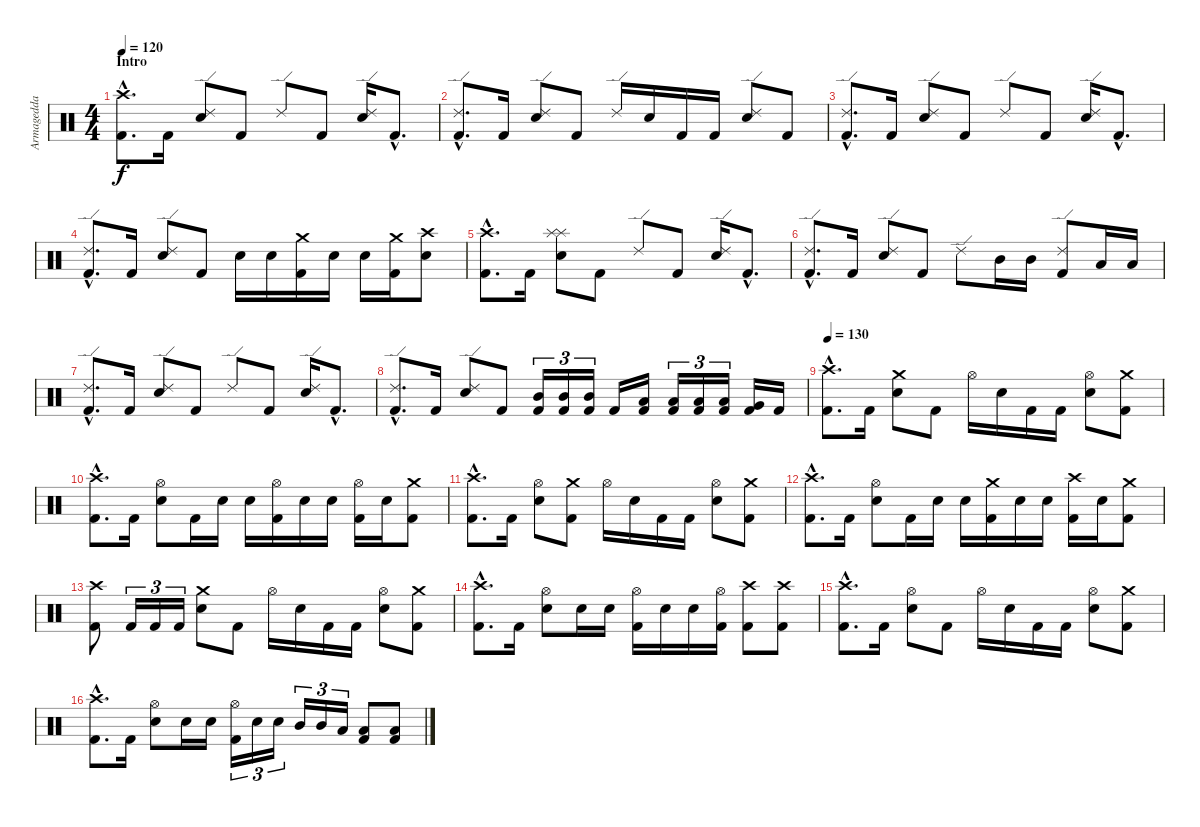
\track ("Armagedda" "Armagedda") {instrument percussion}
\staff {score}
\articulation defaults
\ts (4 4)
\section ("" "Intro")
\tempo 120
\tempo 124
\tempo 120
\clef neutral
\ks c
("Crash high (hit)"{hac} "Kick (hit) 2"{hac}).8{d dy f} "Kick (hit) 2".16 ("Ride (edge) 2" "Electric Snare (hit)").8 "Kick (hit) 2".8 "Ride (edge) 2".8 "Kick (hit) 2".8 ("Ride (edge) 2" "Electric Snare (hit)").16 "Kick (hit) 2"{hac}.8{d} |
("Ride (edge) 2"{hac} "Kick (hit) 2"{hac}).8{d} "Kick (hit) 2".16 ("Ride (edge) 2" "Electric Snare (hit)").8 "Kick (hit) 2".8 "Ride (edge) 2".16 "Electric Snare (hit)".16 "Kick (hit) 2".16 "Kick (hit) 2".16 ("Ride (edge) 2" "Electric Snare (hit)").8 "Kick (hit) 2".8 |
("Ride (edge) 2"{hac} "Kick (hit) 2"{hac}).8{d} "Kick (hit) 2".16 ("Ride (edge) 2" "Electric Snare (hit)").8 "Kick (hit) 2".8 "Ride (edge) 2".8 "Kick (hit) 2".8 ("Ride (edge) 2" "Electric Snare (hit)").16 "Kick (hit) 2"{hac}.8{d} |
("Ride (edge) 2"{hac} "Kick (hit) 2"{hac}).8{d} "Kick (hit) 2".16 ("Ride (edge) 2" "Electric Snare (hit)").8 "Kick (hit) 2".8 "Electric Snare (hit)".16 "Electric Snare (hit)".16 ("Crash medium (hit)" "Kick (hit) 2").16 "Electric Snare (hit)".16 "Electric Snare (hit)".16 ("Crash medium (hit)" "Kick (hit) 2").16 ("Crash high (hit)" "Electric Snare (hit)").8 |
("Crash high (hit)"{hac} "Kick (hit) 2"{hac}).8{d} "Kick (hit) 2".16 ("Splash (hit)" "Splash (hit)" "Electric Snare (hit)").8 "Kick (hit) 2".8 "Ride (edge) 2".8 "Kick (hit) 2".8 ("Ride (edge) 2" "Electric Snare (hit)").16 "Kick (hit) 2"{hac}.8{d} |
("Ride (edge) 2"{hac} "Kick (hit) 2"{hac}).8{d} "Kick (hit) 2".16 ("Ride (edge) 2" "Electric Snare (hit)").8 "Kick (hit) 2".8 "Ride (edge) 2".8 "Mid Tom (hit)".16 "Mid Tom (hit)".16 ("Ride (edge) 2" "Kick (hit) 2").8 "Low Tom (hit)".16 "Low Tom (hit)".16 |
("Ride (edge) 2"{hac} "Kick (hit) 2"{hac}).8{d} "Kick (hit) 2".16 ("Ride (edge) 2" "Electric Snare (hit)").8 "Kick (hit) 2".8 "Ride (edge) 2".8 "Kick (hit) 2".8 ("Ride (edge) 2" "Electric Snare (hit)").16 "Kick (hit) 2"{hac}.8{d} |
("Ride (edge) 2"{hac} "Kick (hit) 2"{hac}).8{d} "Kick (hit) 2".16 ("Ride (edge) 2" "Electric Snare (hit)").8 "Kick (hit) 2".8 ("Mid Tom (hit)" "Kick (hit) 2").16{tu (3 2)} ("Mid Tom (hit)" "Kick (hit) 2").16{tu (3 2)} ("Mid Tom (hit)" "Kick (hit) 2").16{tu (3 2)} "Kick (hit) 2".16 ("Low Tom (hit)" "Kick (hit) 2").16 ("Low Tom (hit)" "Kick (hit) 2").16{tu (3 2)} ("Low Tom (hit)" "Kick (hit) 2").16{tu (3 2)} ("Low Tom (hit)" "Kick (hit) 2").16{tu (3 2)} ("Very Low Tom (hit)" "Kick (hit) 2").16 "Kick (hit) 2".16 |
\tempo 130
("Crash high (hit)"{hac} "Kick (hit) 2"{hac}).8{d} "Kick (hit) 2".16 ("Crash medium (hit)" "Electric Snare (hit)").8 "Kick (hit) 2".8 "Hi-Hat (open)".16 "Electric Snare (hit)".16 "Kick (hit) 2".16 "Kick (hit) 2".16 ("Hi-Hat (open)" "Electric Snare (hit)").8 ("Crash medium (hit)" "Kick (hit) 2").8 |
("Crash high (hit)"{hac} "Kick (hit) 2"{hac}).8{d} "Kick (hit) 2".16 ("Hi-Hat (open)" "Electric Snare (hit)").8 "Kick (hit) 2".16 "Electric Snare (hit)".16 "Electric Snare (hit)".16 ("Hi-Hat (open)" "Kick (hit) 2").16 "Electric Snare (hit)".16 "Electric Snare (hit)".16 ("Hi-Hat (open)" "Kick (hit) 2").16 "Electric Snare (hit)".16 ("Crash medium (hit)" "Kick (hit) 2").8 |
("Crash high (hit)"{hac} "Kick (hit) 2"{hac}).8{d} "Kick (hit) 2".16 ("Hi-Hat (open)" "Electric Snare (hit)").8 ("Crash medium (hit)" "Kick (hit) 2").8 "Hi-Hat (open)".16 "Electric Snare (hit)".16 "Kick (hit) 2".16 "Kick (hit) 2".16 ("Hi-Hat (open)" "Electric Snare (hit)").8 ("Crash medium (hit)" "Kick (hit) 2").8 |
("Crash high (hit)"{hac} "Kick (hit) 2"{hac}).8{d} "Kick (hit) 2".16 ("Hi-Hat (open)" "Electric Snare (hit)").8 "Kick (hit) 2".16 "Electric Snare (hit)".16 "Electric Snare (hit)".16 ("Crash medium (hit)" "Kick (hit) 2").16 "Electric Snare (hit)".16 "Electric Snare (hit)".16 ("Crash high (hit)" "Kick (hit) 2").16 "Electric Snare (hit)".16 ("Crash medium (hit)" "Kick (hit) 2").8 |
("Crash high (hit)" "Kick (hit) 2").8 "Kick (hit) 2".16{tu (3 2)} "Kick (hit) 2".16{tu (3 2)} "Kick (hit) 2".16{tu (3 2)} ("Crash medium (hit)" "Electric Snare (hit)").8 "Kick (hit) 2".8 "Hi-Hat (open)".16 "Electric Snare (hit)".16 "Kick (hit) 2".16 "Kick (hit) 2".16 ("Hi-Hat (open)" "Electric Snare (hit)").8 ("Crash medium (hit)" "Kick (hit) 2").8 |
("Crash high (hit)"{hac} "Kick (hit) 2"{hac}).8{d} "Kick (hit) 2".16 ("Hi-Hat (open)" "Electric Snare (hit)").8 "Electric Snare (hit)".16 "Electric Snare (hit)".16 ("Hi-Hat (open)" "Kick (hit) 2").16 "Electric Snare (hit)".16 "Electric Snare (hit)".16 ("Hi-Hat (open)" "Kick (hit) 2").16 ("Crash high (hit)" "Kick (hit) 2").8 ("Crash high (hit)" "Kick (hit) 2").8 |
("Crash high (hit)"{hac} "Kick (hit) 2"{hac}).8{d} "Kick (hit) 2".16 ("Hi-Hat (open)" "Electric Snare (hit)").8 "Kick (hit) 2".8 "Hi-Hat (open)".16 "Electric Snare (hit)".16 "Kick (hit) 2".16 "Kick (hit) 2".16 ("Hi-Hat (open)" "Electric Snare (hit)").8 ("Crash medium (hit)" "Kick (hit) 2").8 |
("Crash high (hit)"{hac} "Kick (hit) 2"{hac}).8{d} "Kick (hit) 2".16 ("Hi-Hat (open)" "Electric Snare (hit)").8 "Electric Snare (hit)".16 "Electric Snare (hit)".16 ("Hi-Hat (open)" "Kick (hit) 2").16{tu (3 2)} "Electric Snare (hit)".16{tu (3 2)} "Electric Snare (hit)".16{tu (3 2)} "Mid Tom (hit)".16{tu (3 2)} "Mid Tom (hit)".16{tu (3 2)} "Low Tom (hit)".16{tu (3 2)} ("Low Floor Tom (hit)" "Kick (hit) 2").8 ("Low Floor Tom (hit)" "Kick (hit) 2").8
